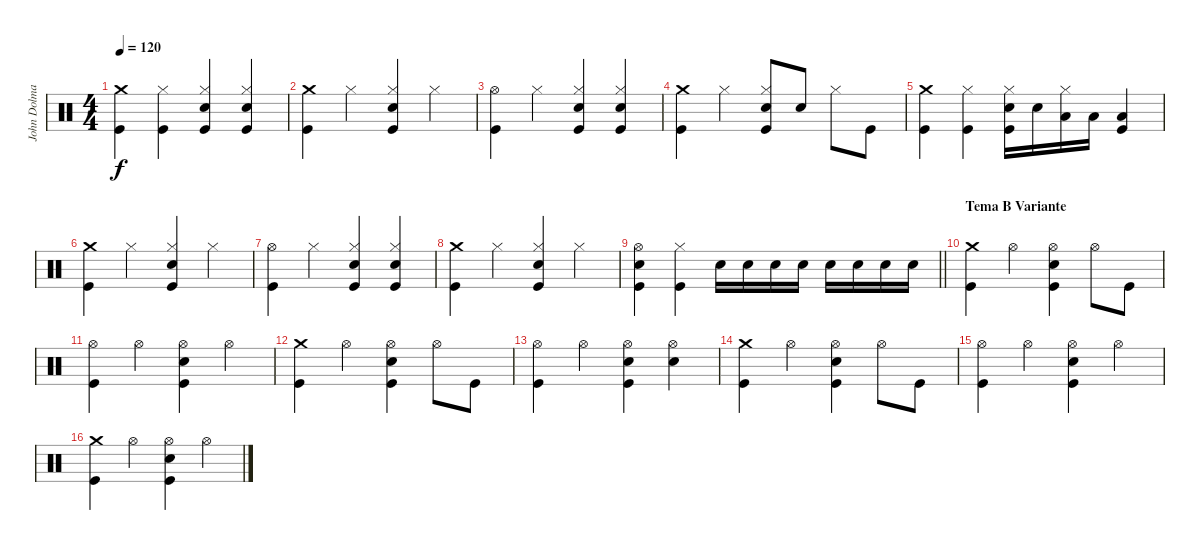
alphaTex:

\track ("John Dolmayan (Bateria)" "John Dolma") {instrument percussion}
\staff {score}
\articulation defaults
\ts (4 4)
\tempo 120
\clef neutral
\ks c
("Crash medium (hit)" "Kick (hit)").4{dy f} ("Hi-Hat (closed)" "Kick (hit)").4 ("Hi-Hat (closed)" "Snare (hit) 2" "Kick (hit)").4 ("Hi-Hat (closed)" "Snare (hit) 2" "Kick (hit)").4 |
("Crash medium (hit)" "Kick (hit)").4 "Hi-Hat (closed)".4 ("Hi-Hat (closed)" "Snare (hit) 2" "Kick (hit)").4 "Hi-Hat (closed)".4 |
("Hi-Hat (open)" "Kick (hit)").4 "Hi-Hat (closed)".4 ("Hi-Hat (closed)" "Snare (hit) 2" "Kick (hit)").4 ("Hi-Hat (closed)" "Snare (hit) 2" "Kick (hit)").4 |
("Crash medium (hit)" "Kick (hit)").4 "Hi-Hat (closed)".4 ("Hi-Hat (closed)" "Snare (hit) 2" "Kick (hit)").8 "Snare (hit) 2".8 "Hi-Hat (closed)".8 "Kick (hit)".8 |
("Crash medium (hit)" "Kick (hit)").4 ("Hi-Hat (closed)" "Kick (hit)").4 ("Hi-Hat (closed)" "Snare (hit) 2" "Kick (hit)").16 "Snare (hit) 2".16 ("Hi-Hat (closed)" "Low Floor Tom (hit)").16 "Low Floor Tom (hit)".16 ("Low Floor Tom (hit)" "Kick (hit)").4 |
("Crash medium (hit)" "Kick (hit)").4 "Hi-Hat (closed)".4 ("Hi-Hat (closed)" "Snare (hit) 2" "Kick (hit)").4 "Hi-Hat (closed)".4 |
("Hi-Hat (open)" "Kick (hit)").4 "Hi-Hat (closed)".4 ("Hi-Hat (closed)" "Snare (hit) 2" "Kick (hit)").4 ("Hi-Hat (closed)" "Snare (hit) 2" "Kick (hit)").4 |
("Crash medium (hit)" "Kick (hit)").4 "Hi-Hat (closed)".4 ("Hi-Hat (closed)" "Snare (hit) 2" "Kick (hit)").4 "Hi-Hat (closed)".4 |
\barLineRight lightlight
("Hi-Hat (open)" "Snare (hit) 2" "Kick (hit)").4 ("Hi-Hat (closed)" "Kick (hit)").4 "Snare (hit) 2".16 "Snare (hit) 2".16 "Snare (hit) 2".16 "Snare (hit) 2".16 "Snare (hit) 2".16 "Snare (hit) 2".16 "Snare (hit) 2".16 "Snare (hit) 2".16 |
\section ("" "Tema B Variante")
("Crash medium (hit)" "Kick (hit)").4 "Hi-Hat (open)".4 ("Hi-Hat (open)" "Snare (hit) 2" "Kick (hit)").4 "Hi-Hat (open)".8 "Kick (hit)".8 |
("Hi-Hat (open)" "Kick (hit)").4 "Hi-Hat (open)".4 ("Hi-Hat (open)" "Snare (hit) 2" "Kick (hit)").4 "Hi-Hat (open)".4 |
("Crash medium (hit)" "Kick (hit)").4 "Hi-Hat (open)".4 ("Hi-Hat (open)" "Snare (hit) 2" "Kick (hit)").4 "Hi-Hat (open)".8 "Kick (hit)".8 |
("Hi-Hat (open)" "Kick (hit)").4 "Hi-Hat (open)".4 ("Hi-Hat (open)" "Snare (hit) 2" "Kick (hit)").4 ("Hi-Hat (open)" "Snare (hit) 2").4 |
("Crash medium (hit)" "Kick (hit)").4 "Hi-Hat (open)".4 ("Hi-Hat (open)" "Snare (hit) 2" "Kick (hit)").4 "Hi-Hat (open)".8 "Kick (hit)".8 |
("Hi-Hat (open)" "Kick (hit)").4 "Hi-Hat (open)".4 ("Hi-Hat (open)" "Snare (hit) 2" "Kick (hit)").4 "Hi-Hat (open)".4 |
("Crash medium (hit)" "Kick (hit)").4 "Hi-Hat (open)".4 ("Hi-Hat (open)" "Snare (hit) 2" "Kick (hit)").4 "Hi-Hat (open)".4
